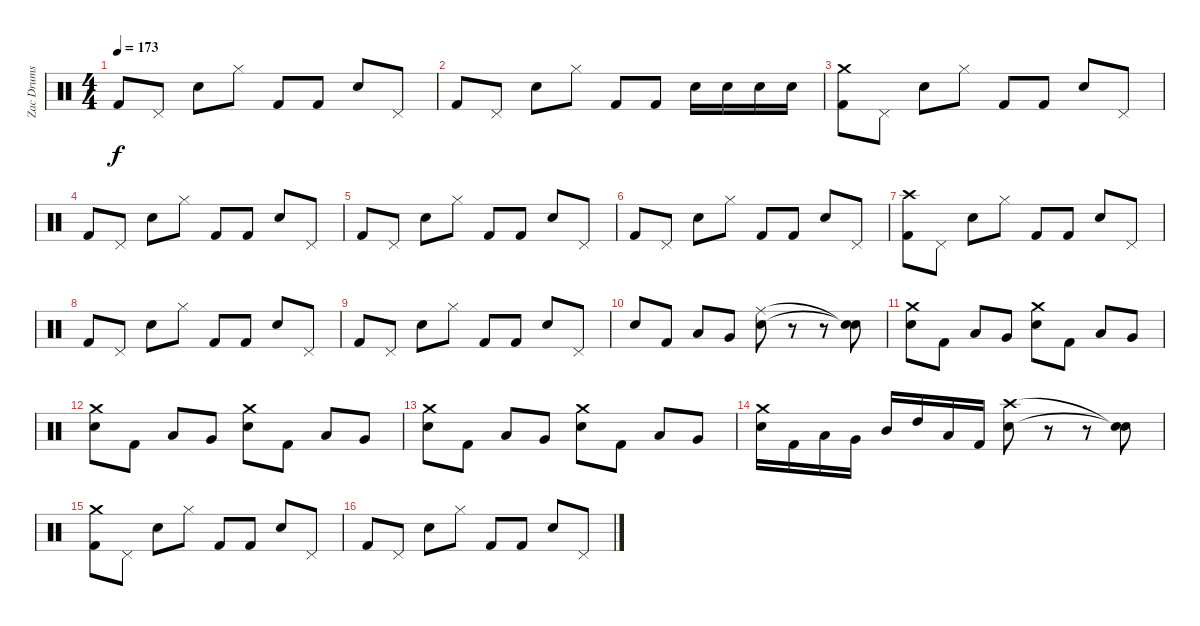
\track ("Zac Drums" "Zac Drums") {instrument percussion}
\staff {score}
\articulation defaults
\ts (4 4)
\tempo 173
\clef neutral
\ks c "Kick (hit) 2".8{dy f} "Pedal Hi-Hat (hit)".8 "Electric Snare (hit)".8 "Hi-Hat (closed)".8 "Kick (hit) 2".8 "Kick (hit) 2".8 "Electric Snare (hit)".8 "Pedal Hi-Hat (hit)".8
|
"Kick (hit) 2".8 "Pedal Hi-Hat (hit)".8 "Electric Snare (hit)".8 "Hi-Hat (closed)".8 "Kick (hit) 2".8 "Kick (hit) 2".8 "Electric Snare (hit)".16 "Electric Snare (hit)".16 "Electric Snare (hit)".16 "Electric Snare (hit)".16 |
("Crash medium (hit)" "Kick (hit) 2").8 "Pedal Hi-Hat (hit)".8 "Electric Snare (hit)".8 "Hi-Hat (closed)".8 "Kick (hit) 2".8 "Kick (hit) 2".8 "Electric Snare (hit)".8 "Pedal Hi-Hat (hit)".8 |
"Kick (hit) 2".8 "Pedal Hi-Hat (hit)".8 "Electric Snare (hit)".8 "Hi-Hat (closed)".8 "Kick (hit) 2".8 "Kick (hit) 2".8 "Electric Snare (hit)".8 "Pedal Hi-Hat (hit)".8 |
"Kick (hit) 2".8 "Pedal Hi-Hat (hit)".8 "Electric Snare (hit)".8 "Hi-Hat (closed)".8 "Kick (hit) 2".8 "Kick (hit) 2".8 "Electric Snare (hit)".8 "Pedal Hi-Hat (hit)".8 |
"Kick (hit) 2".8 "Pedal Hi-Hat (hit)".8 "Electric Snare (hit)".8 "Hi-Hat (closed)".8 "Kick (hit) 2".8 "Kick (hit) 2".8 "Electric Snare (hit)".8 "Pedal Hi-Hat (hit)".8 |
("Crash high (hit)" "Kick (hit) 2").8 "Pedal Hi-Hat (hit)".8 "Electric Snare (hit)".8 "Hi-Hat (closed)".8 "Kick (hit) 2".8 "Kick (hit) 2".8 "Electric Snare (hit)".8 "Pedal Hi-Hat (hit)".8 |
"Kick (hit) 2".8 "Pedal Hi-Hat (hit)".8 "Electric Snare (hit)".8 "Hi-Hat (closed)".8 "Kick (hit) 2".8 "Kick (hit) 2".8 "Electric Snare (hit)".8 "Pedal Hi-Hat (hit)".8 |
"Kick (hit) 2".8 "Pedal Hi-Hat (hit)".8 "Electric Snare (hit)".8 "Hi-Hat (closed)".8 "Kick (hit) 2".8 "Kick (hit) 2".8 "Electric Snare (hit)".8 "Pedal Hi-Hat (hit)".8 |
"Electric Snare (hit)".8 "Kick (hit) 2".8 "Low Tom (hit)".8 "Very Low Tom (hit)".8 ("Ride (middle)" "Electric Snare (hit)").8 r.8 r.8 ("Snare (hit)"{t} "Snare (hit)"{t}).8 |
("Crash medium (hit)" "Electric Snare (hit)").8 "Kick (hit) 2".8 "Low Tom (hit)".8 "Very Low Tom (hit)".8 ("Crash medium (hit)" "Electric Snare (hit)").8 "Kick (hit) 2".8 "Low Tom (hit)".8 "Very Low Tom (hit)".8 |
("Crash medium (hit)" "Electric Snare (hit)").8 "Kick (hit) 2".8 "Low Tom (hit)".8 "Very Low Tom (hit)".8 ("Crash medium (hit)" "Electric Snare (hit)").8 "Kick (hit) 2".8 "Low Tom (hit)".8 "Very Low Tom (hit)".8 |
("Crash medium (hit)" "Electric Snare (hit)").8 "Kick (hit) 2".8 "Low Tom (hit)".8 "Very Low Tom (hit)".8 ("Crash medium (hit)" "Electric Snare (hit)").8 "Kick (hit) 2".8 "Low Tom (hit)".8 "Very Low Tom (hit)".8 |
("Crash medium (hit)" "Electric Snare (hit)").16 "Kick (hit) 2".16 "Low Tom (hit)".16 "Very Low Tom (hit)".16 "Mid Tom (hit)".16 "High Tom (hit)".16 "Low Tom (hit)".16 "Kick (hit) 2".16 ("Crash high (hit)" "Electric Snare (hit)").8 r.8 r.8 ("Snare (hit)"{t} "Snare (hit)"{t}).8 |
("Crash medium (hit)" "Kick (hit) 2").8 "Pedal Hi-Hat (hit)".8 "Electric Snare (hit)".8 "Hi-Hat (closed)".8 "Kick (hit) 2".8 "Kick (hit) 2".8 "Electric Snare (hit)".8 "Pedal Hi-Hat (hit)".8 |
"Kick (hit) 2".8 "Pedal Hi-Hat (hit)".8 "Electric Snare (hit)".8 "Hi-Hat (closed)".8 "Kick (hit) 2".8 "Kick (hit) 2".8 "Electric Snare (hit)".8 "Pedal Hi-Hat (hit)".8
